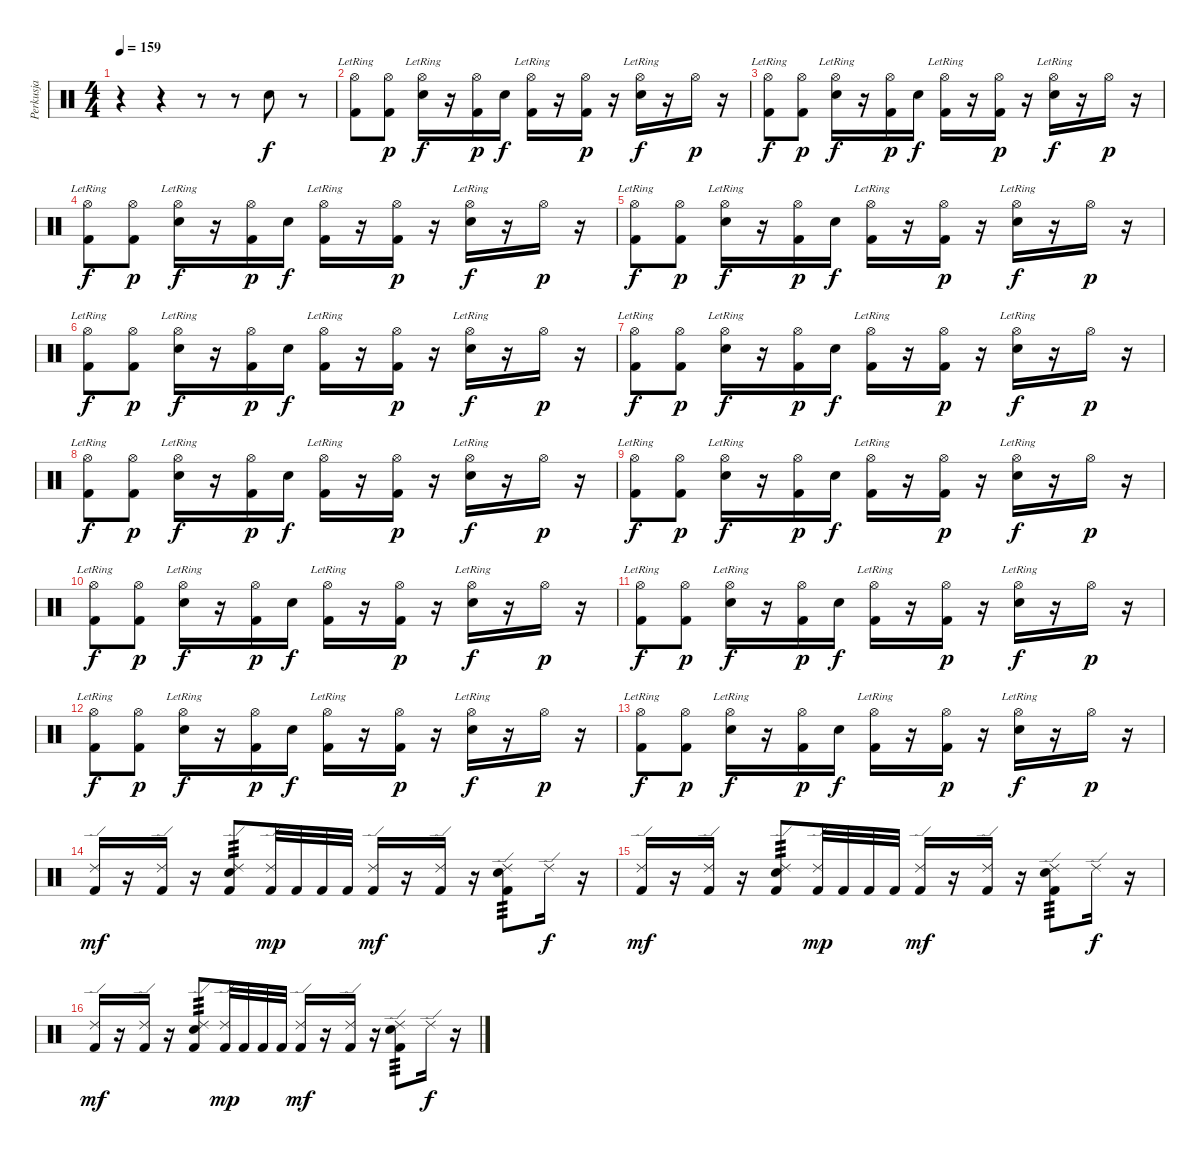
\track ("Perkusja" "Perkusja") {instrument percussion}
\staff {score}
\articulation defaults
\ts (4 4)
\tempo 159
\clef neutral
\ks c
r.4{dy f} r.4 r.8 r.8 "Electric Snare (hit)".8 r.8 |
("Hi-Hat (open)"{lr} "Kick (hit) 2").8 ("Hi-Hat (open)" "Kick (hit) 2").8{dy p} ("Hi-Hat (open)"{lr} "Electric Snare (hit)").16{dy f} r.16 ("Hi-Hat (open)" "Kick (hit) 2").16{dy p} "Electric Snare (hit)".16{dy f} ("Hi-Hat (open)"{lr} "Kick (hit) 2").16 r.16 ("Hi-Hat (open)" "Kick (hit) 2").16{dy p} r.16 ("Hi-Hat (open)"{lr} "Electric Snare (hit)").16{dy f} r.16 "Hi-Hat (open)".16{dy p} r.16 |
("Hi-Hat (open)"{lr} "Kick (hit) 2").8{dy f} ("Hi-Hat (open)" "Kick (hit) 2").8{dy p} ("Hi-Hat (open)"{lr} "Electric Snare (hit)").16{dy f} r.16 ("Hi-Hat (open)" "Kick (hit) 2").16{dy p} "Electric Snare (hit)".16{dy f} ("Hi-Hat (open)"{lr} "Kick (hit) 2").16 r.16 ("Hi-Hat (open)" "Kick (hit) 2").16{dy p} r.16 ("Hi-Hat (open)"{lr} "Electric Snare (hit)").16{dy f} r.16 "Hi-Hat (open)".16{dy p} r.16 |
("Hi-Hat (open)"{lr} "Kick (hit) 2").8{dy f} ("Hi-Hat (open)" "Kick (hit) 2").8{dy p} ("Hi-Hat (open)"{lr} "Electric Snare (hit)").16{dy f} r.16 ("Hi-Hat (open)" "Kick (hit) 2").16{dy p} "Electric Snare (hit)".16{dy f} ("Hi-Hat (open)"{lr} "Kick (hit) 2").16 r.16 ("Hi-Hat (open)" "Kick (hit) 2").16{dy p} r.16 ("Hi-Hat (open)"{lr} "Electric Snare (hit)").16{dy f} r.16 "Hi-Hat (open)".16{dy p} r.16 |
("Hi-Hat (open)"{lr} "Kick (hit) 2").8{dy f} ("Hi-Hat (open)" "Kick (hit) 2").8{dy p} ("Hi-Hat (open)"{lr} "Electric Snare (hit)").16{dy f} r.16 ("Hi-Hat (open)" "Kick (hit) 2").16{dy p} "Electric Snare (hit)".16{dy f} ("Hi-Hat (open)"{lr} "Kick (hit) 2").16 r.16 ("Hi-Hat (open)" "Kick (hit) 2").16{dy p} r.16 ("Hi-Hat (open)"{lr} "Electric Snare (hit)").16{dy f} r.16 "Hi-Hat (open)".16{dy p} r.16 |
("Hi-Hat (open)"{lr} "Kick (hit) 2").8{dy f} ("Hi-Hat (open)" "Kick (hit) 2").8{dy p} ("Hi-Hat (open)"{lr} "Electric Snare (hit)").16{dy f} r.16 ("Hi-Hat (open)" "Kick (hit) 2").16{dy p} "Electric Snare (hit)".16{dy f} ("Hi-Hat (open)"{lr} "Kick (hit) 2").16 r.16 ("Hi-Hat (open)" "Kick (hit) 2").16{dy p} r.16 ("Hi-Hat (open)"{lr} "Electric Snare (hit)").16{dy f} r.16 "Hi-Hat (open)".16{dy p} r.16 |
("Hi-Hat (open)"{lr} "Kick (hit) 2").8{dy f} ("Hi-Hat (open)" "Kick (hit) 2").8{dy p} ("Hi-Hat (open)"{lr} "Electric Snare (hit)").16{dy f} r.16 ("Hi-Hat (open)" "Kick (hit) 2").16{dy p} "Electric Snare (hit)".16{dy f} ("Hi-Hat (open)"{lr} "Kick (hit) 2").16 r.16 ("Hi-Hat (open)" "Kick (hit) 2").16{dy p} r.16 ("Hi-Hat (open)"{lr} "Electric Snare (hit)").16{dy f} r.16 "Hi-Hat (open)".16{dy p} r.16 |
("Hi-Hat (open)"{lr} "Kick (hit) 2").8{dy f} ("Hi-Hat (open)" "Kick (hit) 2").8{dy p} ("Hi-Hat (open)"{lr} "Electric Snare (hit)").16{dy f} r.16 ("Hi-Hat (open)" "Kick (hit) 2").16{dy p} "Electric Snare (hit)".16{dy f} ("Hi-Hat (open)"{lr} "Kick (hit) 2").16 r.16 ("Hi-Hat (open)" "Kick (hit) 2").16{dy p} r.16 ("Hi-Hat (open)"{lr} "Electric Snare (hit)").16{dy f} r.16 "Hi-Hat (open)".16{dy p} r.16 |
("Hi-Hat (open)"{lr} "Kick (hit) 2").8{dy f} ("Hi-Hat (open)" "Kick (hit) 2").8{dy p} ("Hi-Hat (open)"{lr} "Electric Snare (hit)").16{dy f} r.16 ("Hi-Hat (open)" "Kick (hit) 2").16{dy p} "Electric Snare (hit)".16{dy f} ("Hi-Hat (open)"{lr} "Kick (hit) 2").16 r.16 ("Hi-Hat (open)" "Kick (hit) 2").16{dy p} r.16 ("Hi-Hat (open)"{lr} "Electric Snare (hit)").16{dy f} r.16 "Hi-Hat (open)".16{dy p} r.16 |
("Hi-Hat (open)"{lr} "Kick (hit) 2").8{dy f} ("Hi-Hat (open)" "Kick (hit) 2").8{dy p} ("Hi-Hat (open)"{lr} "Electric Snare (hit)").16{dy f} r.16 ("Hi-Hat (open)" "Kick (hit) 2").16{dy p} "Electric Snare (hit)".16{dy f} ("Hi-Hat (open)"{lr} "Kick (hit) 2").16 r.16 ("Hi-Hat (open)" "Kick (hit) 2").16{dy p} r.16 ("Hi-Hat (open)"{lr} "Electric Snare (hit)").16{dy f} r.16 "Hi-Hat (open)".16{dy p} r.16 |
("Hi-Hat (open)"{lr} "Kick (hit) 2").8{dy f} ("Hi-Hat (open)" "Kick (hit) 2").8{dy p} ("Hi-Hat (open)"{lr} "Electric Snare (hit)").16{dy f} r.16 ("Hi-Hat (open)" "Kick (hit) 2").16{dy p} "Electric Snare (hit)".16{dy f} ("Hi-Hat (open)"{lr} "Kick (hit) 2").16 r.16 ("Hi-Hat (open)" "Kick (hit) 2").16{dy p} r.16 ("Hi-Hat (open)"{lr} "Electric Snare (hit)").16{dy f} r.16 "Hi-Hat (open)".16{dy p} r.16 |
("Hi-Hat (open)"{lr} "Kick (hit) 2").8{dy f} ("Hi-Hat (open)" "Kick (hit) 2").8{dy p} ("Hi-Hat (open)"{lr} "Electric Snare (hit)").16{dy f} r.16 ("Hi-Hat (open)" "Kick (hit) 2").16{dy p} "Electric Snare (hit)".16{dy f} ("Hi-Hat (open)"{lr} "Kick (hit) 2").16 r.16 ("Hi-Hat (open)" "Kick (hit) 2").16{dy p} r.16 ("Hi-Hat (open)"{lr} "Electric Snare (hit)").16{dy f} r.16 "Hi-Hat (open)".16{dy p} r.16 |
("Hi-Hat (open)"{lr} "Kick (hit) 2").8{dy f} ("Hi-Hat (open)" "Kick (hit) 2").8{dy p} ("Hi-Hat (open)"{lr} "Electric Snare (hit)").16{dy f} r.16 ("Hi-Hat (open)" "Kick (hit) 2").16{dy p} "Electric Snare (hit)".16{dy f} ("Hi-Hat (open)"{lr} "Kick (hit) 2").16 r.16 ("Hi-Hat (open)" "Kick (hit) 2").16{dy p} r.16 ("Hi-Hat (open)"{lr} "Electric Snare (hit)").16{dy f} r.16 "Hi-Hat (open)".16{dy p} r.16 |
("Ride (edge) 2" "Kick (hit) 2").16{dy mf} r.16 ("Ride (edge) 2" "Kick (hit) 2").16 r.16 ("Ride (edge) 2" "Electric Snare (hit)" "Kick (hit) 2").8{tp 3} ("Ride (edge) 2" "Kick (hit) 2").32{dy mp} "Kick (hit) 2".32 "Kick (hit) 2".32 "Kick (hit) 2".32 ("Ride (edge) 2" "Kick (hit) 2").16{dy mf} r.16 ("Ride (edge) 2" "Kick (hit) 2").16 r.16 ("Ride (edge) 2" "Electric Snare (hit)" "Kick (hit) 2").8{tp 3} "Ride (edge) 2".16{dy f} r.16 |
("Ride (edge) 2" "Kick (hit) 2").16{dy mf} r.16 ("Ride (edge) 2" "Kick (hit) 2").16 r.16 ("Ride (edge) 2" "Electric Snare (hit)" "Kick (hit) 2").8{tp 3} ("Ride (edge) 2" "Kick (hit) 2").32{dy mp} "Kick (hit) 2".32 "Kick (hit) 2".32 "Kick (hit) 2".32 ("Ride (edge) 2" "Kick (hit) 2").16{dy mf} r.16 ("Ride (edge) 2" "Kick (hit) 2").16 r.16 ("Ride (edge) 2" "Electric Snare (hit)" "Kick (hit) 2").8{tp 3} "Ride (edge) 2".16{dy f} r.16 |
("Ride (edge) 2" "Kick (hit) 2").16{dy mf} r.16 ("Ride (edge) 2" "Kick (hit) 2").16 r.16 ("Ride (edge) 2" "Electric Snare (hit)" "Kick (hit) 2").8{tp 3} ("Ride (edge) 2" "Kick (hit) 2").32{dy mp} "Kick (hit) 2".32 "Kick (hit) 2".32 "Kick (hit) 2".32 ("Ride (edge) 2" "Kick (hit) 2").16{dy mf} r.16 ("Ride (edge) 2" "Kick (hit) 2").16 r.16 ("Ride (edge) 2" "Electric Snare (hit)" "Kick (hit) 2").8{tp 3} "Ride (edge) 2".16{dy f} r.16
